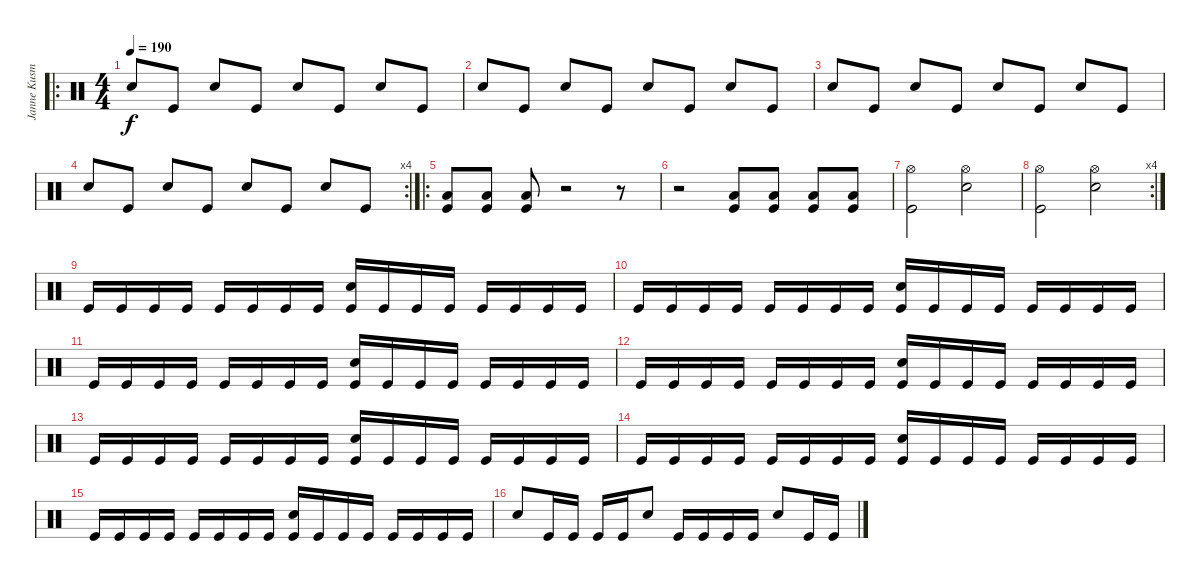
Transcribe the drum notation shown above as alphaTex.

\track ("Janne Kusmin" "Janne Kusm") {instrument percussion}
\staff {score}
\articulation defaults
\ro
\ts (4 4)
\tempo 190
\clef neutral
\ks c "Electric Snare (hit)".8{dy f} "Kick (hit)".8 "Electric Snare (hit)".8 "Kick (hit)".8 "Electric Snare (hit)".8 "Kick (hit)".8 "Electric Snare (hit)".8 "Kick (hit)".8
|
"Electric Snare (hit)".8 "Kick (hit)".8 "Electric Snare (hit)".8 "Kick (hit)".8 "Electric Snare (hit)".8 "Kick (hit)".8 "Electric Snare (hit)".8 "Kick (hit)".8 |
"Electric Snare (hit)".8 "Kick (hit)".8 "Electric Snare (hit)".8 "Kick (hit)".8 "Electric Snare (hit)".8 "Kick (hit)".8 "Electric Snare (hit)".8 "Kick (hit)".8 |
\rc 4 "Electric Snare (hit)".8 "Kick (hit)".8 "Electric Snare (hit)".8 "Kick (hit)".8 "Electric Snare (hit)".8 "Kick (hit)".8 "Electric Snare (hit)".8 "Kick (hit)".8
|
\ro
("Low Tom (hit)" "Kick (hit)").8 ("Low Tom (hit)" "Kick (hit)").8 ("Low Tom (hit)" "Kick (hit)").8 r.2 r.8 |
r.2 ("Low Tom (hit)" "Kick (hit)").8 ("Low Tom (hit)" "Kick (hit)").8 ("Low Tom (hit)" "Kick (hit)").8 ("Low Tom (hit)" "Kick (hit)").8 |
("Hi-Hat (open)" "Kick (hit)").2 ("Hi-Hat (open)" "Electric Snare (hit)").2 |
\rc 4
("Hi-Hat (open)" "Kick (hit)").2 ("Hi-Hat (open)" "Electric Snare (hit)").2 |
"Kick (hit)".16 "Kick (hit)".16 "Kick (hit)".16 "Kick (hit)".16 "Kick (hit)".16 "Kick (hit)".16 "Kick (hit)".16 "Kick (hit)".16 ("Electric Snare (hit)" "Kick (hit)").16 "Kick (hit)".16 "Kick (hit)".16 "Kick (hit)".16 "Kick (hit)".16 "Kick (hit)".16 "Kick (hit)".16 "Kick (hit)".16 |
"Kick (hit)".16 "Kick (hit)".16 "Kick (hit)".16 "Kick (hit)".16 "Kick (hit)".16 "Kick (hit)".16 "Kick (hit)".16 "Kick (hit)".16 ("Electric Snare (hit)" "Kick (hit)").16 "Kick (hit)".16 "Kick (hit)".16 "Kick (hit)".16 "Kick (hit)".16 "Kick (hit)".16 "Kick (hit)".16 "Kick (hit)".16 |
"Kick (hit)".16 "Kick (hit)".16 "Kick (hit)".16 "Kick (hit)".16 "Kick (hit)".16 "Kick (hit)".16 "Kick (hit)".16 "Kick (hit)".16 ("Electric Snare (hit)" "Kick (hit)").16 "Kick (hit)".16 "Kick (hit)".16 "Kick (hit)".16 "Kick (hit)".16 "Kick (hit)".16 "Kick (hit)".16 "Kick (hit)".16 |
"Kick (hit)".16 "Kick (hit)".16 "Kick (hit)".16 "Kick (hit)".16 "Kick (hit)".16 "Kick (hit)".16 "Kick (hit)".16 "Kick (hit)".16 ("Electric Snare (hit)" "Kick (hit)").16 "Kick (hit)".16 "Kick (hit)".16 "Kick (hit)".16 "Kick (hit)".16 "Kick (hit)".16 "Kick (hit)".16 "Kick (hit)".16 |
"Kick (hit)".16 "Kick (hit)".16 "Kick (hit)".16 "Kick (hit)".16 "Kick (hit)".16 "Kick (hit)".16 "Kick (hit)".16 "Kick (hit)".16 ("Electric Snare (hit)" "Kick (hit)").16 "Kick (hit)".16 "Kick (hit)".16 "Kick (hit)".16 "Kick (hit)".16 "Kick (hit)".16 "Kick (hit)".16 "Kick (hit)".16 |
"Kick (hit)".16 "Kick (hit)".16 "Kick (hit)".16 "Kick (hit)".16 "Kick (hit)".16 "Kick (hit)".16 "Kick (hit)".16 "Kick (hit)".16 ("Electric Snare (hit)" "Kick (hit)").16 "Kick (hit)".16 "Kick (hit)".16 "Kick (hit)".16 "Kick (hit)".16 "Kick (hit)".16 "Kick (hit)".16 "Kick (hit)".16 |
"Kick (hit)".16 "Kick (hit)".16 "Kick (hit)".16 "Kick (hit)".16 "Kick (hit)".16 "Kick (hit)".16 "Kick (hit)".16 "Kick (hit)".16 ("Electric Snare (hit)" "Kick (hit)").16 "Kick (hit)".16 "Kick (hit)".16 "Kick (hit)".16 "Kick (hit)".16 "Kick (hit)".16 "Kick (hit)".16 "Kick (hit)".16 |
"Electric Snare (hit)".8 "Kick (hit)".16 "Kick (hit)".16 "Kick (hit)".16 "Kick (hit)".16 "Electric Snare (hit)".8 "Kick (hit)".16 "Kick (hit)".16 "Kick (hit)".16 "Kick (hit)".16 "Electric Snare (hit)".8 "Kick (hit)".16 "Kick (hit)".16
